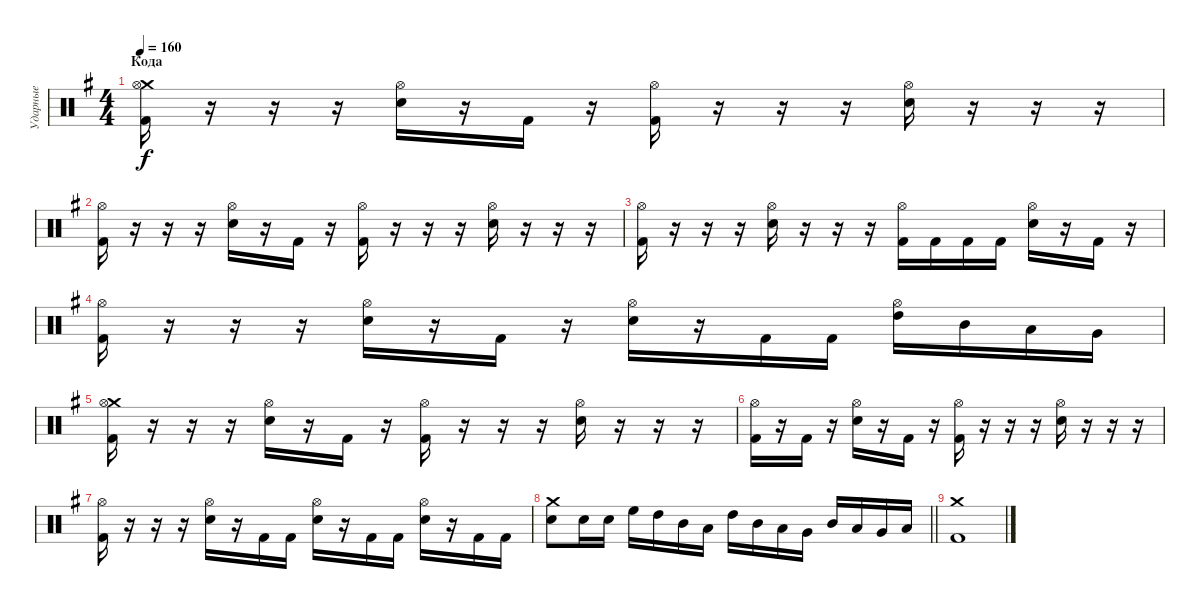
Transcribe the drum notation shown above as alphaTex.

\track ("Ударные" "Ударные") {instrument percussion}
\staff {score}
\articulation defaults
\ts (4 4)
\section ("" "Кода")
\tempo 160
\clef neutral
\ks eminor
("Crash medium (hit)" "Kick (hit) 2" "Hi-Hat (open)").16{dy f} r.16 r.16 r.16 ("Electric Snare (hit)" "Hi-Hat (open)").16 r.16 "Kick (hit) 2".16 r.16 ("Kick (hit) 2" "Hi-Hat (open)").16 r.16 r.16 r.16 ("Electric Snare (hit)" "Hi-Hat (open)").16 r.16 r.16 r.16 |
("Kick (hit) 2" "Hi-Hat (open)").16 r.16 r.16 r.16 ("Electric Snare (hit)" "Hi-Hat (open)").16 r.16 "Kick (hit) 2".16 r.16 ("Kick (hit) 2" "Hi-Hat (open)").16 r.16 r.16 r.16 ("Electric Snare (hit)" "Hi-Hat (open)").16 r.16 r.16 r.16 |
("Kick (hit) 2" "Hi-Hat (open)").16 r.16 r.16 r.16 ("Electric Snare (hit)" "Hi-Hat (open)").16 r.16 r.16 r.16 ("Kick (hit) 2" "Hi-Hat (open)").16 "Kick (hit) 2".16 "Kick (hit) 2".16 "Kick (hit) 2".16 ("Electric Snare (hit)" "Hi-Hat (open)").16 r.16 "Kick (hit) 2".16 r.16 |
("Kick (hit) 2" "Hi-Hat (open)").16 r.16 r.16 r.16 ("Electric Snare (hit)" "Hi-Hat (open)").16 r.16 "Kick (hit) 2".16 r.16 ("Electric Snare (hit)" "Hi-Hat (open)").16 r.16 "Kick (hit) 2".16 "Kick (hit) 2".16 ("High Tom (hit)" "Hi-Hat (open)").16 "Mid Tom (hit)".16 "Low Tom (hit)".16 "Very Low Tom (hit)".16 |
("Crash medium (hit)" "Kick (hit) 2" "Hi-Hat (open)").16 r.16 r.16 r.16 ("Electric Snare (hit)" "Hi-Hat (open)").16 r.16 "Kick (hit) 2".16 r.16 ("Kick (hit) 2" "Hi-Hat (open)").16 r.16 r.16 r.16 ("Electric Snare (hit)" "Hi-Hat (open)").16 r.16 r.16 r.16 |
("Kick (hit) 2" "Hi-Hat (open)").16 r.16 "Kick (hit) 2".16 r.16 ("Electric Snare (hit)" "Hi-Hat (open)").16 r.16 "Kick (hit) 2".16 r.16 ("Kick (hit) 2" "Hi-Hat (open)").16 r.16 r.16 r.16 ("Electric Snare (hit)" "Hi-Hat (open)").16 r.16 r.16 r.16 |
("Kick (hit) 2" "Hi-Hat (open)").16 r.16 r.16 r.16 ("Electric Snare (hit)" "Hi-Hat (open)").16 r.16 "Kick (hit) 2".16 "Kick (hit) 2".16 ("Electric Snare (hit)" "Hi-Hat (open)").16 r.16 "Kick (hit) 2".16 "Kick (hit) 2".16 ("Electric Snare (hit)" "Hi-Hat (open)").16 r.16 "Kick (hit) 2".16 "Kick (hit) 2".16 |
\barLineRight lightlight
("Crash medium (hit)" "Electric Snare (hit)").8 "Electric Snare (hit)".16 "Electric Snare (hit)".16 "High Floor Tom (hit)".16 "High Tom (hit)".16 "Mid Tom (hit)".16 "Low Tom (hit)".16 "High Tom (hit)".16 "Mid Tom (hit)".16 "Low Tom (hit)".16 "Very Low Tom (hit)".16 "Mid Tom (hit)".16 "Low Tom (hit)".16 "Very Low Tom (hit)".16 "Low Floor Tom (hit)".16 |
\section ("" "")
("Crash medium (hit)" "Kick (hit) 2").1
